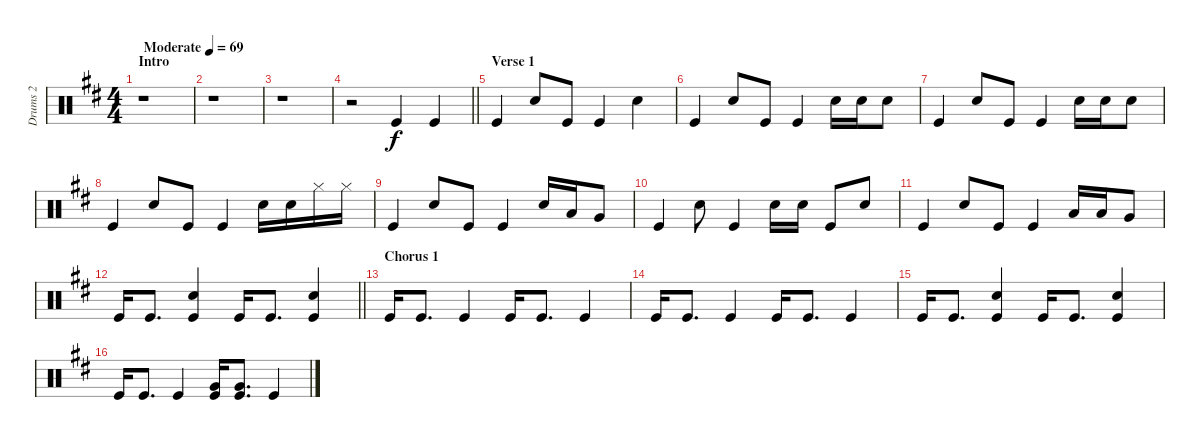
\track ("Drums 2" "Drums 2") {instrument percussion}
\staff {score}
\articulation defaults
\ts (4 4)
\section ("" "Intro")
\tempo (69 "Moderate")
\clef neutral
\ks d
r.1{dy f} |
r.1 |
r.1 |
\barLineRight lightlight
r.2 "Kick (hit)".4 "Kick (hit)".4 |
\section ("" "Verse 1")
"Kick (hit)".4 "Snare (hit) 2".8 "Kick (hit)".8 "Kick (hit)".4 "Snare (hit) 2".4 |
"Kick (hit)".4 "Snare (hit) 2".8 "Kick (hit)".8 "Kick (hit)".4 "Snare (hit) 2".16 "Snare (hit) 2".16 "Snare (hit) 2".8 |
"Kick (hit)".4 "Snare (hit) 2".8 "Kick (hit)".8 "Kick (hit)".4 "Snare (hit) 2".16 "Snare (hit) 2".16 "Snare (hit) 2".8 |
"Kick (hit)".4 "Snare (hit) 2".8 "Kick (hit)".8 "Kick (hit)".4 "Snare (hit) 2".16 "Snare (hit) 2".16 "Hi-Hat (closed)".16 "Hi-Hat (closed)".16 |
"Kick (hit)".4 "Snare (hit) 2".8 "Kick (hit)".8 "Kick (hit)".4 "Snare (hit) 2".16 "Low Tom (hit)".16 "Very Low Tom (hit)".8 |
"Kick (hit)".4 "Snare (hit) 2".8 "Kick (hit)".4 "Snare (hit) 2".16 "Snare (hit) 2".16 "Kick (hit)".8 "Snare (hit) 2".8 |
"Kick (hit)".4 "Snare (hit) 2".8 "Kick (hit)".8 "Kick (hit)".4 "Low Tom (hit)".16 "Low Tom (hit)".16 "Very Low Tom (hit)".8 |
\barLineRight lightlight "Kick (hit)".16 "Kick (hit)".8{d}
("Kick (hit)" "Snare (hit) 2").4 "Kick (hit)".16 "Kick (hit)".8{d} ("Kick (hit)" "Snare (hit) 2").4 |
\section ("" "Chorus 1")
"Kick (hit)".16 "Kick (hit)".8{d} "Kick (hit)".4 "Kick (hit)".16 "Kick (hit)".8{d} "Kick (hit)".4 |
"Kick (hit)".16 "Kick (hit)".8{d} "Kick (hit)".4 "Kick (hit)".16 "Kick (hit)".8{d} "Kick (hit)".4 |
"Kick (hit)".16 "Kick (hit)".8{d} ("Kick (hit)" "Snare (hit) 2").4 "Kick (hit)".16 "Kick (hit)".8{d} ("Kick (hit)" "Snare (hit) 2").4 |
"Kick (hit)".16 "Kick (hit)".8{d} "Kick (hit)".4 ("Kick (hit)" "Very Low Tom (hit)").16 ("Very Low Tom (hit)" "Kick (hit)").8{d} "Kick (hit)".4
